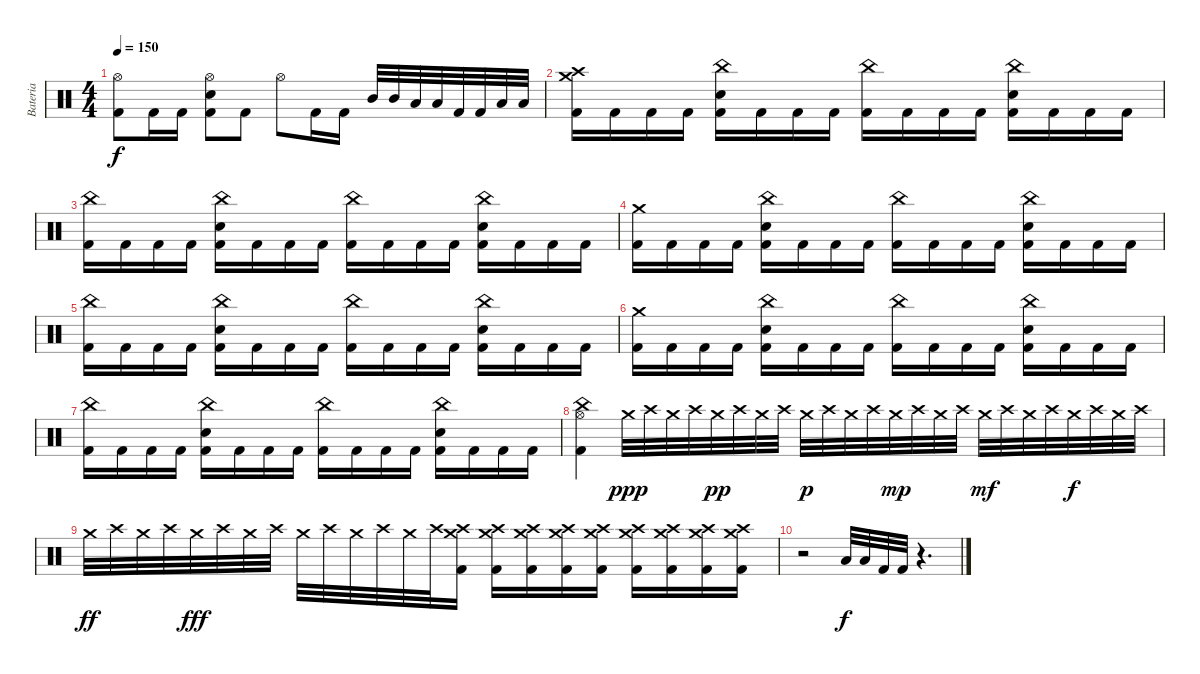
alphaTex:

\track ("Bateria" "Bateria") {instrument percussion}
\staff {score}
\articulation defaults
\ts (4 4)
\tempo 150
\clef neutral
\ks c
("Hi-Hat (open)" "Kick (hit) 2").8{dy f} "Kick (hit) 2".16 "Kick (hit) 2".16 ("Hi-Hat (open)" "Snare (hit) 2" "Kick (hit) 2").8 "Kick (hit) 2".8 "Hi-Hat (open)".8 "Kick (hit) 2".16 "Kick (hit) 2".16 "Mid Tom (hit)".32 "Mid Tom (hit)".32 "Low Tom (hit)".32 "Low Tom (hit)".32 "Kick (hit) 2".32 "Kick (hit) 2".32 "Low Tom (hit)".32 "Low Tom (hit)".32 |
("Crash high (hit)" "Crash medium (hit)" "Kick (hit) 2").16 "Kick (hit) 2".16 "Kick (hit) 2".16 "Kick (hit) 2".16 ("China (hit)" "Snare (hit) 2" "Kick (hit) 2").16 "Kick (hit) 2".16 "Kick (hit) 2".16 "Kick (hit) 2".16 ("China (hit)" "Kick (hit) 2").16 "Kick (hit) 2".16 "Kick (hit) 2".16 "Kick (hit) 2".16 ("China (hit)" "Snare (hit) 2" "Kick (hit) 2").16 "Kick (hit) 2".16 "Kick (hit) 2".16 "Kick (hit) 2".16 |
("China (hit)" "Kick (hit) 2").16 "Kick (hit) 2".16 "Kick (hit) 2".16 "Kick (hit) 2".16 ("China (hit)" "Snare (hit) 2" "Kick (hit) 2").16 "Kick (hit) 2".16 "Kick (hit) 2".16 "Kick (hit) 2".16 ("China (hit)" "Kick (hit) 2").16 "Kick (hit) 2".16 "Kick (hit) 2".16 "Kick (hit) 2".16 ("China (hit)" "Snare (hit) 2" "Kick (hit) 2").16 "Kick (hit) 2".16 "Kick (hit) 2".16 "Kick (hit) 2".16 |
("Crash medium (hit)" "Kick (hit) 2").16 "Kick (hit) 2".16 "Kick (hit) 2".16 "Kick (hit) 2".16 ("China (hit)" "Snare (hit) 2" "Kick (hit) 2").16 "Kick (hit) 2".16 "Kick (hit) 2".16 "Kick (hit) 2".16 ("China (hit)" "Kick (hit) 2").16 "Kick (hit) 2".16 "Kick (hit) 2".16 "Kick (hit) 2".16 ("China (hit)" "Snare (hit) 2" "Kick (hit) 2").16 "Kick (hit) 2".16 "Kick (hit) 2".16 "Kick (hit) 2".16 |
("China (hit)" "Kick (hit) 2").16 "Kick (hit) 2".16 "Kick (hit) 2".16 "Kick (hit) 2".16 ("China (hit)" "Snare (hit) 2" "Kick (hit) 2").16 "Kick (hit) 2".16 "Kick (hit) 2".16 "Kick (hit) 2".16 ("China (hit)" "Kick (hit) 2").16 "Kick (hit) 2".16 "Kick (hit) 2".16 "Kick (hit) 2".16 ("China (hit)" "Snare (hit) 2" "Kick (hit) 2").16 "Kick (hit) 2".16 "Kick (hit) 2".16 "Kick (hit) 2".16 |
("Crash medium (hit)" "Kick (hit) 2").16 "Kick (hit) 2".16 "Kick (hit) 2".16 "Kick (hit) 2".16 ("China (hit)" "Snare (hit) 2" "Kick (hit) 2").16 "Kick (hit) 2".16 "Kick (hit) 2".16 "Kick (hit) 2".16 ("China (hit)" "Kick (hit) 2").16 "Kick (hit) 2".16 "Kick (hit) 2".16 "Kick (hit) 2".16 ("China (hit)" "Snare (hit) 2" "Kick (hit) 2").16 "Kick (hit) 2".16 "Kick (hit) 2".16 "Kick (hit) 2".16 |
("China (hit)" "Kick (hit) 2").16 "Kick (hit) 2".16 "Kick (hit) 2".16 "Kick (hit) 2".16 ("China (hit)" "Snare (hit) 2" "Kick (hit) 2").16 "Kick (hit) 2".16 "Kick (hit) 2".16 "Kick (hit) 2".16 ("China (hit)" "Kick (hit) 2").16 "Kick (hit) 2".16 "Kick (hit) 2".16 "Kick (hit) 2".16 ("China (hit)" "Snare (hit) 2" "Kick (hit) 2").16 "Kick (hit) 2".16 "Kick (hit) 2".16 "Kick (hit) 2".16 |
("China (hit)" "Hi-Hat (open)" "Kick (hit) 2").4 "Crash medium (hit)".32{dy ppp} "Crash high (hit)".32 "Crash medium (hit)".32 "Crash high (hit)".32 "Crash medium (hit)".32{dy pp} "Crash high (hit)".32 "Crash medium (hit)".32 "Crash high (hit)".32 "Crash medium (hit)".32{dy p} "Crash high (hit)".32 "Crash medium (hit)".32 "Crash high (hit)".32 "Crash medium (hit)".32{dy mp} "Crash high (hit)".32 "Crash medium (hit)".32 "Crash high (hit)".32 "Crash medium (hit)".32{dy mf} "Crash high (hit)".32 "Crash medium (hit)".32 "Crash high (hit)".32 "Crash medium (hit)".32{dy f} "Crash high (hit)".32 "Crash medium (hit)".32 "Crash high (hit)".32 |
"Crash medium (hit)".32{dy ff} "Crash high (hit)".32 "Crash medium (hit)".32 "Crash high (hit)".32 "Crash medium (hit)".32{dy fff} "Crash high (hit)".32 "Crash medium (hit)".32 "Crash high (hit)".32 "Crash medium (hit)".32 "Crash high (hit)".32 "Crash medium (hit)".32 "Crash high (hit)".32 "Crash medium (hit)".32 "Crash high (hit)".32 ("Crash medium (hit)" "Crash high (hit)" "Kick (hit) 2").16 ("Crash medium (hit)" "Crash high (hit)" "Kick (hit) 2").16 ("Crash medium (hit)" "Crash high (hit)" "Kick (hit) 2").16 ("Crash medium (hit)" "Crash high (hit)" "Kick (hit) 2").16 ("Crash medium (hit)" "Crash high (hit)" "Kick (hit) 2").16 ("Crash medium (hit)" "Crash high (hit)" "Kick (hit) 2").16 ("Crash medium (hit)" "Crash high (hit)" "Kick (hit) 2").16 ("Crash medium (hit)" "Crash high (hit)" "Kick (hit) 2").16 ("Crash medium (hit)" "Crash high (hit)" "Kick (hit) 2").16 |
r.2 "Low Tom (hit)".32{dy f} "Low Tom (hit)".32 "Kick (hit) 2".32 "Kick (hit) 2".32 r.4{d}
